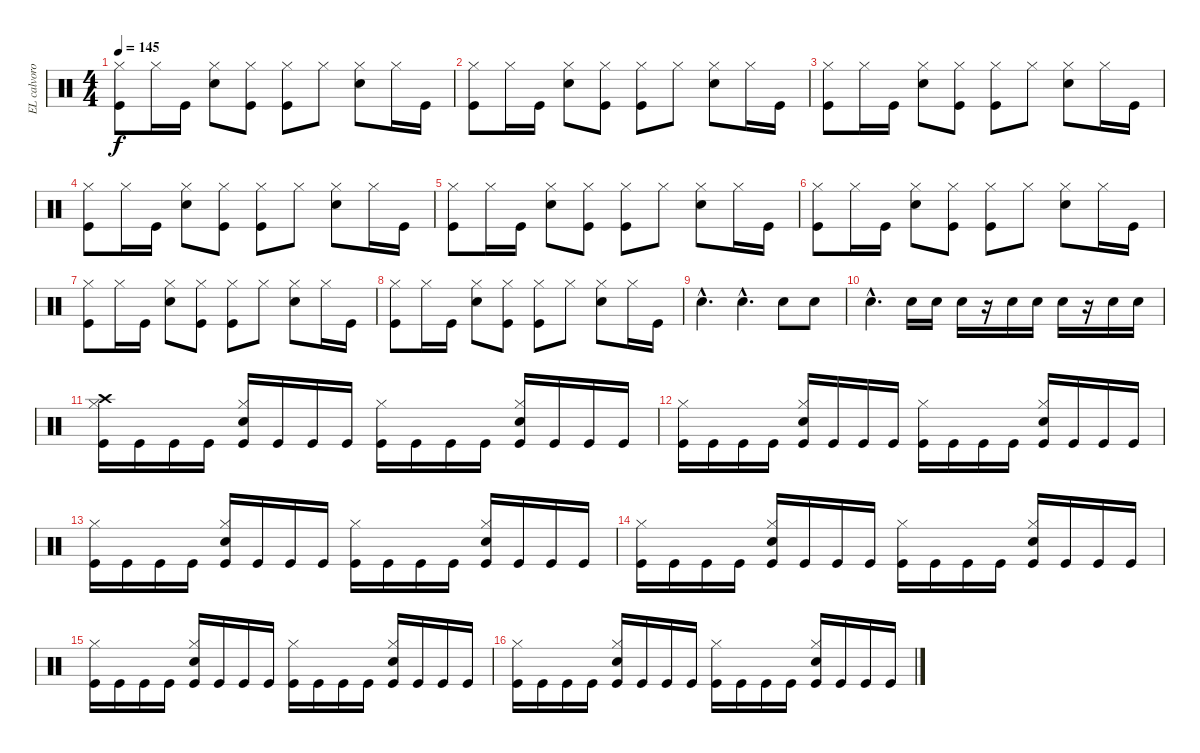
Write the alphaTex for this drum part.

\track ("EL calvorotas" "EL calvoro") {instrument percussion}
\staff {score}
\articulation defaults
\ts (4 4)
\tempo 145
\clef neutral
\ks c
("Kick (hit)" "Hi-Hat (closed)").8{dy f} "Hi-Hat (closed)".16 "Kick (hit)".16 ("Snare (hit) 2" "Hi-Hat (closed)").8 ("Kick (hit)" "Hi-Hat (closed)").8 ("Hi-Hat (closed)" "Kick (hit)").8 "Hi-Hat (closed)".8 ("Snare (hit) 2" "Hi-Hat (closed)").8 "Hi-Hat (closed)".16 "Kick (hit)".16 |
("Kick (hit)" "Hi-Hat (closed)").8 "Hi-Hat (closed)".16 "Kick (hit)".16 ("Snare (hit) 2" "Hi-Hat (closed)").8 ("Kick (hit)" "Hi-Hat (closed)").8 ("Hi-Hat (closed)" "Kick (hit)").8 "Hi-Hat (closed)".8 ("Snare (hit) 2" "Hi-Hat (closed)").8 "Hi-Hat (closed)".16 "Kick (hit)".16 |
("Kick (hit)" "Hi-Hat (closed)").8 "Hi-Hat (closed)".16 "Kick (hit)".16 ("Snare (hit) 2" "Hi-Hat (closed)").8 ("Kick (hit)" "Hi-Hat (closed)").8 ("Hi-Hat (closed)" "Kick (hit)").8 "Hi-Hat (closed)".8 ("Snare (hit) 2" "Hi-Hat (closed)").8 "Hi-Hat (closed)".16 "Kick (hit)".16 |
("Kick (hit)" "Hi-Hat (closed)").8 "Hi-Hat (closed)".16 "Kick (hit)".16 ("Snare (hit) 2" "Hi-Hat (closed)").8 ("Kick (hit)" "Hi-Hat (closed)").8 ("Hi-Hat (closed)" "Kick (hit)").8 "Hi-Hat (closed)".8 ("Snare (hit) 2" "Hi-Hat (closed)").8 "Hi-Hat (closed)".16 "Kick (hit)".16 |
("Kick (hit)" "Hi-Hat (closed)").8 "Hi-Hat (closed)".16 "Kick (hit)".16 ("Snare (hit) 2" "Hi-Hat (closed)").8 ("Kick (hit)" "Hi-Hat (closed)").8 ("Hi-Hat (closed)" "Kick (hit)").8 "Hi-Hat (closed)".8 ("Snare (hit) 2" "Hi-Hat (closed)").8 "Hi-Hat (closed)".16 "Kick (hit)".16 |
("Kick (hit)" "Hi-Hat (closed)").8 "Hi-Hat (closed)".16 "Kick (hit)".16 ("Snare (hit) 2" "Hi-Hat (closed)").8 ("Kick (hit)" "Hi-Hat (closed)").8 ("Hi-Hat (closed)" "Kick (hit)").8 "Hi-Hat (closed)".8 ("Snare (hit) 2" "Hi-Hat (closed)").8 "Hi-Hat (closed)".16 "Kick (hit)".16 |
("Kick (hit)" "Hi-Hat (closed)").8 "Hi-Hat (closed)".16 "Kick (hit)".16 ("Snare (hit) 2" "Hi-Hat (closed)").8 ("Kick (hit)" "Hi-Hat (closed)").8 ("Hi-Hat (closed)" "Kick (hit)").8 "Hi-Hat (closed)".8 ("Snare (hit) 2" "Hi-Hat (closed)").8 "Hi-Hat (closed)".16 "Kick (hit)".16 |
("Kick (hit)" "Hi-Hat (closed)").8 "Hi-Hat (closed)".16 "Kick (hit)".16 ("Snare (hit) 2" "Hi-Hat (closed)").8 ("Kick (hit)" "Hi-Hat (closed)").8 ("Hi-Hat (closed)" "Kick (hit)").8 "Hi-Hat (closed)".8 ("Snare (hit) 2" "Hi-Hat (closed)").8 "Hi-Hat (closed)".16 "Kick (hit)".16 |
"Snare (hit) 2"{hac}.4{d} "Snare (hit) 2"{hac}.4{d} "Snare (hit) 2".8 "Snare (hit) 2".8 |
"Snare (hit) 2"{hac}.4{d} "Snare (hit) 2".16 "Snare (hit) 2".16 "Snare (hit) 2".16 r.16 "Snare (hit) 2".16 "Snare (hit) 2".16 "Snare (hit) 2".16 r.16 "Snare (hit) 2".16 "Snare (hit) 2".16 |
("Crash high (hit)" "Kick (hit)" "Hi-Hat (closed)").16 "Kick (hit)".16 "Kick (hit)".16 "Kick (hit)".16 ("Hi-Hat (closed)" "Kick (hit)" "Snare (hit) 2").16 "Kick (hit)".16 "Kick (hit)".16 "Kick (hit)".16 ("Hi-Hat (closed)" "Kick (hit)").16 "Kick (hit)".16 "Kick (hit)".16 "Kick (hit)".16 ("Hi-Hat (closed)" "Kick (hit)" "Snare (hit) 2").16 "Kick (hit)".16 "Kick (hit)".16 "Kick (hit)".16 |
("Kick (hit)" "Hi-Hat (closed)").16 "Kick (hit)".16 "Kick (hit)".16 "Kick (hit)".16 ("Hi-Hat (closed)" "Kick (hit)" "Snare (hit) 2").16 "Kick (hit)".16 "Kick (hit)".16 "Kick (hit)".16 ("Hi-Hat (closed)" "Kick (hit)").16 "Kick (hit)".16 "Kick (hit)".16 "Kick (hit)".16 ("Hi-Hat (closed)" "Kick (hit)" "Snare (hit) 2").16 "Kick (hit)".16 "Kick (hit)".16 "Kick (hit)".16 |
("Kick (hit)" "Hi-Hat (closed)").16 "Kick (hit)".16 "Kick (hit)".16 "Kick (hit)".16 ("Hi-Hat (closed)" "Kick (hit)" "Snare (hit) 2").16 "Kick (hit)".16 "Kick (hit)".16 "Kick (hit)".16 ("Hi-Hat (closed)" "Kick (hit)").16 "Kick (hit)".16 "Kick (hit)".16 "Kick (hit)".16 ("Hi-Hat (closed)" "Kick (hit)" "Snare (hit) 2").16 "Kick (hit)".16 "Kick (hit)".16 "Kick (hit)".16 |
("Kick (hit)" "Hi-Hat (closed)").16 "Kick (hit)".16 "Kick (hit)".16 "Kick (hit)".16 ("Hi-Hat (closed)" "Kick (hit)" "Snare (hit) 2").16 "Kick (hit)".16 "Kick (hit)".16 "Kick (hit)".16 ("Hi-Hat (closed)" "Kick (hit)").16 "Kick (hit)".16 "Kick (hit)".16 "Kick (hit)".16 ("Hi-Hat (closed)" "Kick (hit)" "Snare (hit) 2").16 "Kick (hit)".16 "Kick (hit)".16 "Kick (hit)".16 |
("Kick (hit)" "Hi-Hat (closed)").16 "Kick (hit)".16 "Kick (hit)".16 "Kick (hit)".16 ("Hi-Hat (closed)" "Kick (hit)" "Snare (hit) 2").16 "Kick (hit)".16 "Kick (hit)".16 "Kick (hit)".16 ("Hi-Hat (closed)" "Kick (hit)").16 "Kick (hit)".16 "Kick (hit)".16 "Kick (hit)".16 ("Hi-Hat (closed)" "Kick (hit)" "Snare (hit) 2").16 "Kick (hit)".16 "Kick (hit)".16 "Kick (hit)".16 |
("Kick (hit)" "Hi-Hat (closed)").16 "Kick (hit)".16 "Kick (hit)".16 "Kick (hit)".16 ("Hi-Hat (closed)" "Kick (hit)" "Snare (hit) 2").16 "Kick (hit)".16 "Kick (hit)".16 "Kick (hit)".16 ("Hi-Hat (closed)" "Kick (hit)").16 "Kick (hit)".16 "Kick (hit)".16 "Kick (hit)".16 ("Hi-Hat (closed)" "Kick (hit)" "Snare (hit) 2").16 "Kick (hit)".16 "Kick (hit)".16 "Kick (hit)".16
